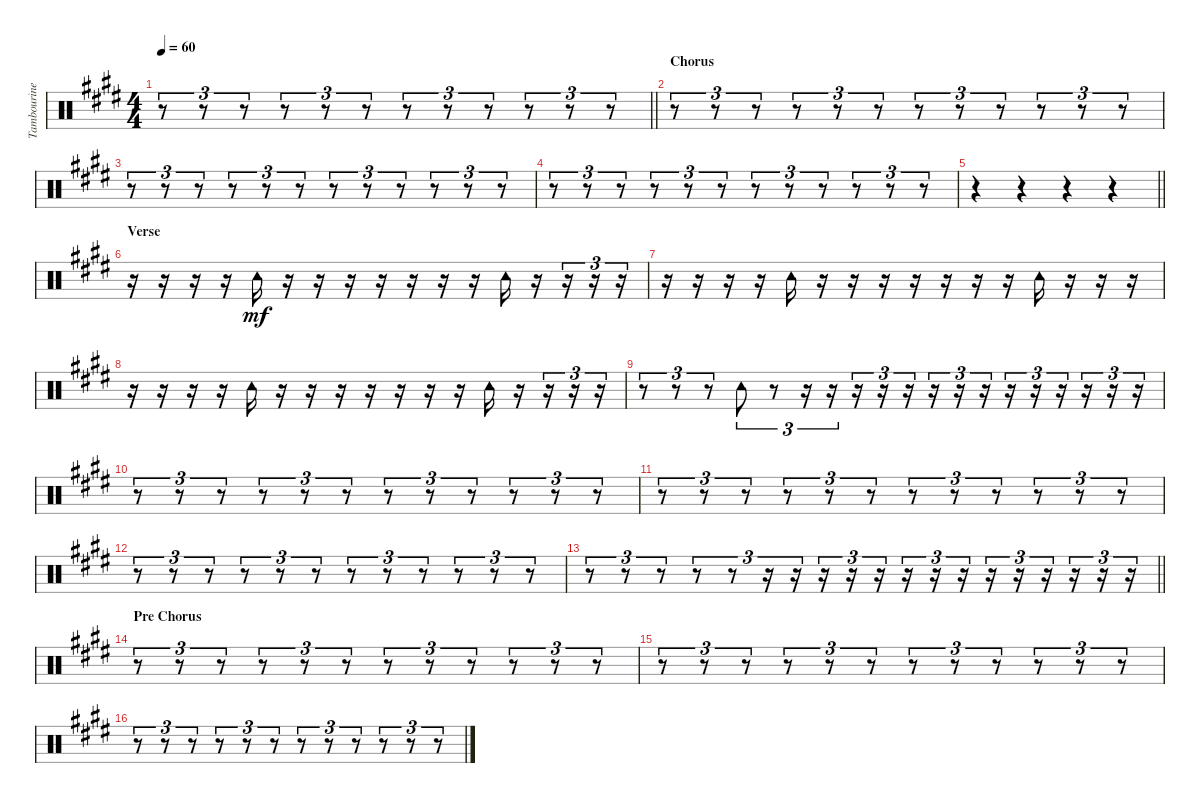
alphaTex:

\track ("Tambourine" "Tambourine") {instrument percussion}
\staff {score}
\articulation defaults
\ts (4 4)
\tempo 60
\clef neutral
\barLineRight lightlight
\ks e
r.8{tu (3 2) dy mf} r.8{tu (3 2)} r.8{tu (3 2)} r.8{tu (3 2)} r.8{tu (3 2)} r.8{tu (3 2)} r.8{tu (3 2)} r.8{tu (3 2)} r.8{tu (3 2)} r.8{tu (3 2)} r.8{tu (3 2)} r.8{tu (3 2)} |
\section ("" "Chorus")
r.8{tu (3 2)} r.8{tu (3 2)} r.8{tu (3 2)} r.8{tu (3 2)} r.8{tu (3 2)} r.8{tu (3 2)} r.8{tu (3 2)} r.8{tu (3 2)} r.8{tu (3 2)} r.8{tu (3 2)} r.8{tu (3 2)} r.8{tu (3 2)} |
r.8{tu (3 2)} r.8{tu (3 2)} r.8{tu (3 2)} r.8{tu (3 2)} r.8{tu (3 2)} r.8{tu (3 2)} r.8{tu (3 2)} r.8{tu (3 2)} r.8{tu (3 2)} r.8{tu (3 2)} r.8{tu (3 2)} r.8{tu (3 2)} |
r.8{tu (3 2)} r.8{tu (3 2)} r.8{tu (3 2)} r.8{tu (3 2)} r.8{tu (3 2)} r.8{tu (3 2)} r.8{tu (3 2)} r.8{tu (3 2)} r.8{tu (3 2)} r.8{tu (3 2)} r.8{tu (3 2)} r.8{tu (3 2)} |
\barLineRight lightlight
r.4 r.4 r.4 r.4 |
\section ("" "Verse")
r.16 r.16 r.16 r.16 "Tambourine (hit)".16 r.16 r.16 r.16 r.16 r.16 r.16 r.16 "Tambourine (hit)".16 r.16 r.16{tu (3 2)} r.16{tu (3 2)} r.16{tu (3 2)} |
r.16 r.16 r.16 r.16 "Tambourine (hit)".16 r.16 r.16 r.16 r.16 r.16 r.16 r.16 "Tambourine (hit)".16 r.16 r.16 r.16 |
r.16 r.16 r.16 r.16 "Tambourine (hit)".16 r.16 r.16 r.16 r.16 r.16 r.16 r.16 "Tambourine (hit)".16 r.16 r.16{tu (3 2)} r.16{tu (3 2)} r.16{tu (3 2)} |
r.8{tu (3 2)} r.8{tu (3 2)} r.8{tu (3 2)} "Tambourine (hit)".8{tu (3 2)} r.8{tu (3 2)} r.16{tu (3 2)} r.16{tu (3 2)} r.16{tu (3 2)} r.16{tu (3 2)} r.16{tu (3 2)} r.16{tu (3 2)} r.16{tu (3 2)} r.16{tu (3 2)} r.16{tu (3 2)} r.16{tu (3 2)} r.16{tu (3 2)} r.16{tu (3 2)} r.16{tu (3 2)} r.16{tu (3 2)} |
r.8{tu (3 2)} r.8{tu (3 2)} r.8{tu (3 2)} r.8{tu (3 2)} r.8{tu (3 2)} r.8{tu (3 2)} r.8{tu (3 2)} r.8{tu (3 2)} r.8{tu (3 2)} r.8{tu (3 2)} r.8{tu (3 2)} r.8{tu (3 2)} |
r.8{tu (3 2)} r.8{tu (3 2)} r.8{tu (3 2)} r.8{tu (3 2)} r.8{tu (3 2)} r.8{tu (3 2)} r.8{tu (3 2)} r.8{tu (3 2)} r.8{tu (3 2)} r.8{tu (3 2)} r.8{tu (3 2)} r.8{tu (3 2)} |
r.8{tu (3 2)} r.8{tu (3 2)} r.8{tu (3 2)} r.8{tu (3 2)} r.8{tu (3 2)} r.8{tu (3 2)} r.8{tu (3 2)} r.8{tu (3 2)} r.8{tu (3 2)} r.8{tu (3 2)} r.8{tu (3 2)} r.8{tu (3 2)} |
\barLineRight lightlight
r.8{tu (3 2)} r.8{tu (3 2)} r.8{tu (3 2)} r.8{tu (3 2)} r.8{tu (3 2)} r.16{tu (3 2)} r.16{tu (3 2)} r.16{tu (3 2)} r.16{tu (3 2)} r.16{tu (3 2)} r.16{tu (3 2)} r.16{tu (3 2)} r.16{tu (3 2)} r.16{tu (3 2)} r.16{tu (3 2)} r.16{tu (3 2)} r.16{tu (3 2)} r.16{tu (3 2)} r.16{tu (3 2)} |
\section ("" "Pre Chorus")
r.8{tu (3 2)} r.8{tu (3 2)} r.8{tu (3 2)} r.8{tu (3 2)} r.8{tu (3 2)} r.8{tu (3 2)} r.8{tu (3 2)} r.8{tu (3 2)} r.8{tu (3 2)} r.8{tu (3 2)} r.8{tu (3 2)} r.8{tu (3 2)} |
r.8{tu (3 2)} r.8{tu (3 2)} r.8{tu (3 2)} r.8{tu (3 2)} r.8{tu (3 2)} r.8{tu (3 2)} r.8{tu (3 2)} r.8{tu (3 2)} r.8{tu (3 2)} r.8{tu (3 2)} r.8{tu (3 2)} r.8{tu (3 2)} |
r.8{tu (3 2)} r.8{tu (3 2)} r.8{tu (3 2)} r.8{tu (3 2)} r.8{tu (3 2)} r.8{tu (3 2)} r.8{tu (3 2)} r.8{tu (3 2)} r.8{tu (3 2)} r.8{tu (3 2)} r.8{tu (3 2)} r.8{tu (3 2)}
